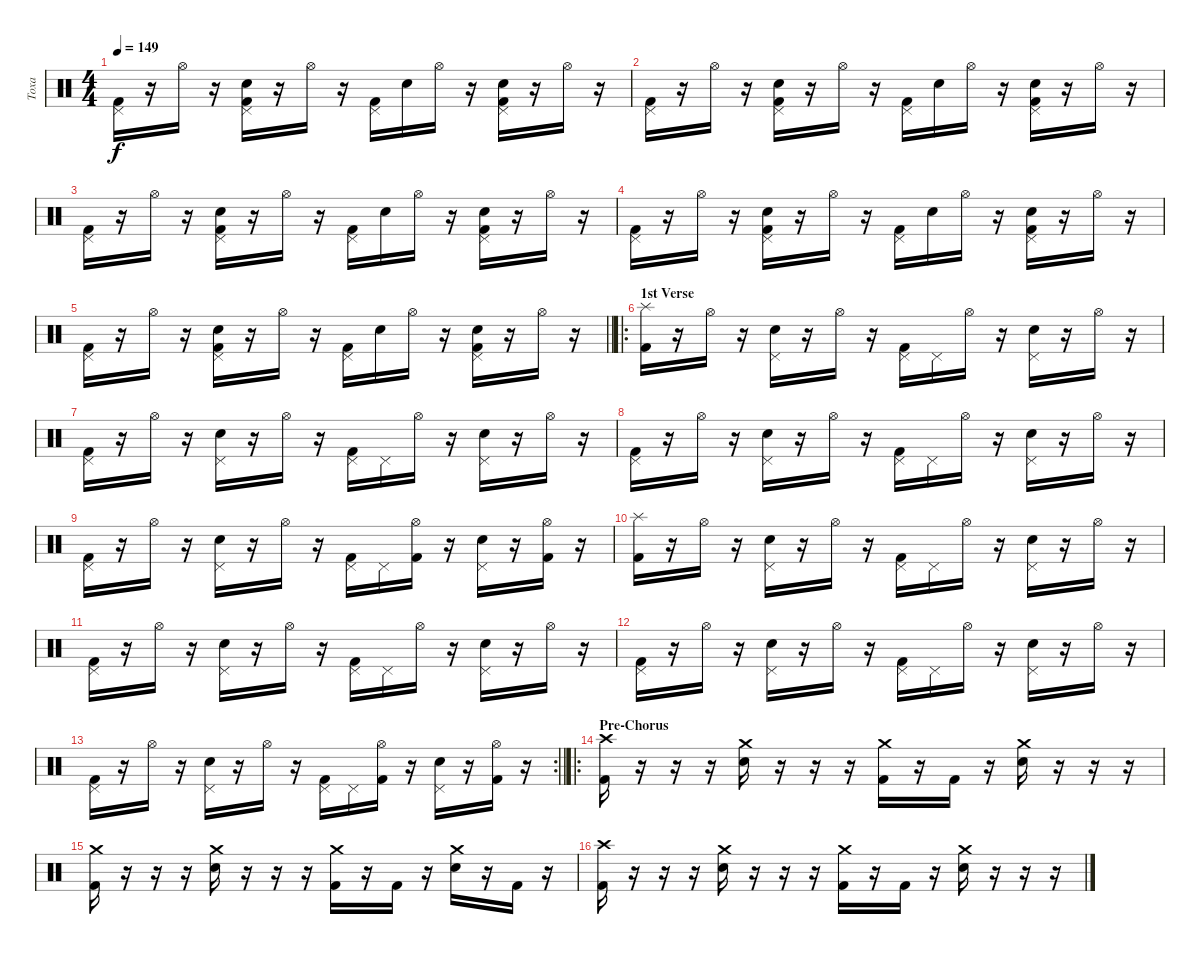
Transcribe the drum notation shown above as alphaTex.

\track ("Toxa" "Toxa") {instrument percussion}
\staff {score}
\articulation defaults
\ts (4 4)
\tempo 149
\clef neutral
\ks c
("Kick (hit) 2" "Pedal Hi-Hat (hit)").16{dy f} r.16 "Hi-Hat (open)".16 r.16 ("Snare (hit) 2" "Pedal Hi-Hat (hit)" "Kick (hit) 2").16 r.16 "Hi-Hat (open)".16 r.16 ("Kick (hit) 2" "Pedal Hi-Hat (hit)").16 "Snare (hit) 2".16 "Hi-Hat (open)".16 r.16 ("Snare (hit) 2" "Kick (hit) 2" "Pedal Hi-Hat (hit)").16 r.16 "Hi-Hat (open)".16 r.16 |
("Kick (hit) 2" "Pedal Hi-Hat (hit)").16 r.16 "Hi-Hat (open)".16 r.16 ("Snare (hit) 2" "Pedal Hi-Hat (hit)" "Kick (hit) 2").16 r.16 "Hi-Hat (open)".16 r.16 ("Kick (hit) 2" "Pedal Hi-Hat (hit)").16 "Snare (hit) 2".16 "Hi-Hat (open)".16 r.16 ("Snare (hit) 2" "Kick (hit) 2" "Pedal Hi-Hat (hit)").16 r.16 "Hi-Hat (open)".16 r.16 |
("Kick (hit) 2" "Pedal Hi-Hat (hit)").16 r.16 "Hi-Hat (open)".16 r.16 ("Snare (hit) 2" "Pedal Hi-Hat (hit)" "Kick (hit) 2").16 r.16 "Hi-Hat (open)".16 r.16 ("Kick (hit) 2" "Pedal Hi-Hat (hit)").16 "Snare (hit) 2".16 "Hi-Hat (open)".16 r.16 ("Snare (hit) 2" "Kick (hit) 2" "Pedal Hi-Hat (hit)").16 r.16 "Hi-Hat (open)".16 r.16 |
("Kick (hit) 2" "Pedal Hi-Hat (hit)").16 r.16 "Hi-Hat (open)".16 r.16 ("Snare (hit) 2" "Pedal Hi-Hat (hit)" "Kick (hit) 2").16 r.16 "Hi-Hat (open)".16 r.16 ("Kick (hit) 2" "Pedal Hi-Hat (hit)").16 "Snare (hit) 2".16 "Hi-Hat (open)".16 r.16 ("Snare (hit) 2" "Kick (hit) 2" "Pedal Hi-Hat (hit)").16 r.16 "Hi-Hat (open)".16 r.16 |
\barLineRight lightlight
("Kick (hit) 2" "Pedal Hi-Hat (hit)").16 r.16 "Hi-Hat (open)".16 r.16 ("Snare (hit) 2" "Pedal Hi-Hat (hit)" "Kick (hit) 2").16 r.16 "Hi-Hat (open)".16 r.16 ("Kick (hit) 2" "Pedal Hi-Hat (hit)").16 "Snare (hit) 2".16 "Hi-Hat (open)".16 r.16 ("Snare (hit) 2" "Kick (hit) 2" "Pedal Hi-Hat (hit)").16 r.16 "Hi-Hat (open)".16 r.16 |
\ro
\section ("" "1st Verse")
("Kick (hit) 2" "Splash (hit)").16 r.16 "Hi-Hat (open)".16 r.16 ("Snare (hit) 2" "Pedal Hi-Hat (hit)").16 r.16 "Hi-Hat (open)".16 r.16 ("Kick (hit) 2" "Pedal Hi-Hat (hit)").16 "Pedal Hi-Hat (hit)".16 "Hi-Hat (open)".16 r.16 ("Snare (hit) 2" "Pedal Hi-Hat (hit)").16 r.16 "Hi-Hat (open)".16 r.16 |
("Kick (hit) 2" "Pedal Hi-Hat (hit)").16 r.16 "Hi-Hat (open)".16 r.16 ("Snare (hit) 2" "Pedal Hi-Hat (hit)").16 r.16 "Hi-Hat (open)".16 r.16 ("Kick (hit) 2" "Pedal Hi-Hat (hit)").16 "Pedal Hi-Hat (hit)".16 "Hi-Hat (open)".16 r.16 ("Snare (hit) 2" "Pedal Hi-Hat (hit)").16 r.16 "Hi-Hat (open)".16 r.16 |
("Kick (hit) 2" "Pedal Hi-Hat (hit)").16 r.16 "Hi-Hat (open)".16 r.16 ("Snare (hit) 2" "Pedal Hi-Hat (hit)").16 r.16 "Hi-Hat (open)".16 r.16 ("Kick (hit) 2" "Pedal Hi-Hat (hit)").16 "Pedal Hi-Hat (hit)".16 "Hi-Hat (open)".16 r.16 ("Snare (hit) 2" "Pedal Hi-Hat (hit)").16 r.16 "Hi-Hat (open)".16 r.16 |
("Kick (hit) 2" "Pedal Hi-Hat (hit)").16 r.16 "Hi-Hat (open)".16 r.16 ("Snare (hit) 2" "Pedal Hi-Hat (hit)").16 r.16 "Hi-Hat (open)".16 r.16 ("Kick (hit) 2" "Pedal Hi-Hat (hit)").16 "Pedal Hi-Hat (hit)".16 ("Hi-Hat (open)" "Kick (hit) 2").16 r.16 ("Snare (hit) 2" "Pedal Hi-Hat (hit)").16 r.16 ("Hi-Hat (open)" "Kick (hit) 2").16 r.16 |
("Kick (hit) 2" "Splash (hit)").16 r.16 "Hi-Hat (open)".16 r.16 ("Snare (hit) 2" "Pedal Hi-Hat (hit)").16 r.16 "Hi-Hat (open)".16 r.16 ("Kick (hit) 2" "Pedal Hi-Hat (hit)").16 "Pedal Hi-Hat (hit)".16 "Hi-Hat (open)".16 r.16 ("Snare (hit) 2" "Pedal Hi-Hat (hit)").16 r.16 "Hi-Hat (open)".16 r.16 |
("Kick (hit) 2" "Pedal Hi-Hat (hit)").16 r.16 "Hi-Hat (open)".16 r.16 ("Snare (hit) 2" "Pedal Hi-Hat (hit)").16 r.16 "Hi-Hat (open)".16 r.16 ("Kick (hit) 2" "Pedal Hi-Hat (hit)").16 "Pedal Hi-Hat (hit)".16 "Hi-Hat (open)".16 r.16 ("Snare (hit) 2" "Pedal Hi-Hat (hit)").16 r.16 "Hi-Hat (open)".16 r.16 |
("Kick (hit) 2" "Pedal Hi-Hat (hit)").16 r.16 "Hi-Hat (open)".16 r.16 ("Snare (hit) 2" "Pedal Hi-Hat (hit)").16 r.16 "Hi-Hat (open)".16 r.16 ("Kick (hit) 2" "Pedal Hi-Hat (hit)").16 "Pedal Hi-Hat (hit)".16 "Hi-Hat (open)".16 r.16 ("Snare (hit) 2" "Pedal Hi-Hat (hit)").16 r.16 "Hi-Hat (open)".16 r.16 |
\rc 2
\barLineRight lightlight
("Kick (hit) 2" "Pedal Hi-Hat (hit)").16 r.16 "Hi-Hat (open)".16 r.16 ("Snare (hit) 2" "Pedal Hi-Hat (hit)").16 r.16 "Hi-Hat (open)".16 r.16 ("Kick (hit) 2" "Pedal Hi-Hat (hit)").16 "Pedal Hi-Hat (hit)".16 ("Hi-Hat (open)" "Kick (hit) 2").16 r.16 ("Snare (hit) 2" "Pedal Hi-Hat (hit)").16 r.16 ("Hi-Hat (open)" "Kick (hit) 2").16 r.16 |
\ro
\section ("" "Pre-Chorus")
("Kick (hit) 2" "Crash high (hit)").16 r.16 r.16 r.16 ("Snare (hit) 2" "Crash medium (hit)").16 r.16 r.16 r.16 ("Kick (hit) 2" "Crash medium (hit)").16 r.16 "Kick (hit) 2".16 r.16 ("Snare (hit) 2" "Crash medium (hit)").16 r.16 r.16 r.16 |
("Kick (hit) 2" "Crash medium (hit)").16 r.16 r.16 r.16 ("Snare (hit) 2" "Crash medium (hit)").16 r.16 r.16 r.16 ("Kick (hit) 2" "Crash medium (hit)").16 r.16 "Kick (hit) 2".16 r.16 ("Snare (hit) 2" "Crash medium (hit)").16 r.16 "Kick (hit) 2".16 r.16 |
("Kick (hit) 2" "Crash high (hit)").16 r.16 r.16 r.16 ("Snare (hit) 2" "Crash medium (hit)").16 r.16 r.16 r.16 ("Kick (hit) 2" "Crash medium (hit)").16 r.16 "Kick (hit) 2".16 r.16 ("Snare (hit) 2" "Crash medium (hit)").16 r.16 r.16 r.16
